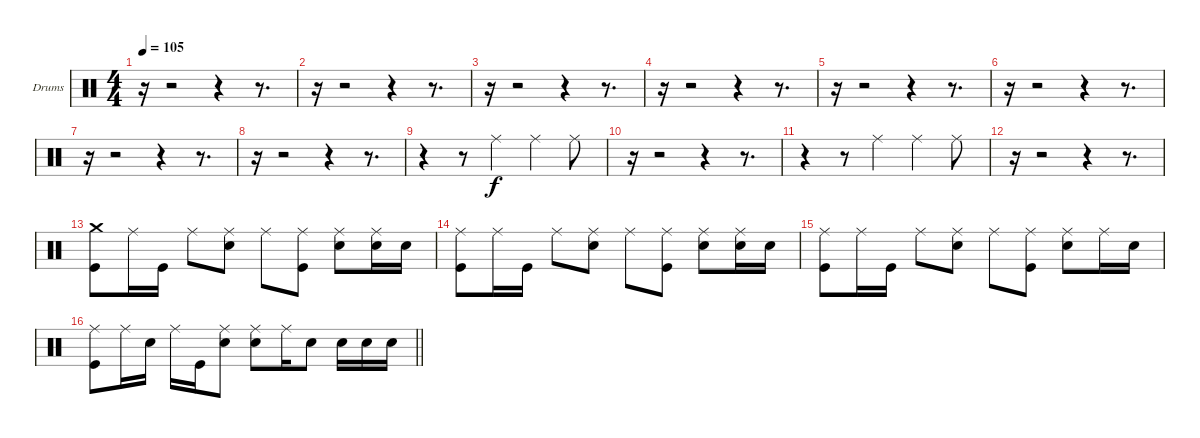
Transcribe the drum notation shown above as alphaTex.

\bracketExtendMode groupsimilarinstruments
\firstSystemTrackNameOrientation horizontal
\otherSystemsTrackNameOrientation horizontal
\track ("Drumkit" "Drums") {instrument percussion}
\staff {score}
\articulation defaults
\ts (4 4)
\tempo 105
\clef neutral
\ks c
r.16{dy f} r.2 r.4 r.8{d} |
r.16 r.2 r.4 r.8{d} |
r.16 r.2 r.4 r.8{d} |
r.16 r.2 r.4 r.8{d} |
r.16 r.2 r.4 r.8{d} |
r.16 r.2 r.4 r.8{d} |
r.16 r.2 r.4 r.8{d} |
r.16 r.2 r.4 r.8{d} |
r.4 r.8 "Ride (middle)".4 "Ride (middle)".4 "Ride (middle)".8 |
r.16 r.2 r.4 r.8{d} |
r.4 r.8 "Ride (middle)".4 "Ride (middle)".4 "Ride (middle)".8 |
r.16 r.2 r.4 r.8{d} |
("Kick (hit)" "Crash medium (hit)").8 "Ride (middle)".16 "Kick (hit)".16 "Ride (middle)".8 ("Snare (hit) 2" "Ride (middle)").8 "Ride (middle)".8 ("Kick (hit)" "Ride (middle)").8 ("Snare (hit) 2" "Ride (middle)").8 ("Snare (hit) 2" "Ride (middle)").16 "Snare (hit) 2".16 |
("Kick (hit)" "Ride (middle)").8 "Ride (middle)".16 "Kick (hit)".16 "Ride (middle)".8 ("Snare (hit) 2" "Ride (middle)").8 "Ride (middle)".8 ("Kick (hit)" "Ride (middle)").8 ("Snare (hit) 2" "Ride (middle)").8 ("Snare (hit) 2" "Ride (middle)").16 "Snare (hit) 2".16 |
("Kick (hit)" "Ride (middle)").8 "Ride (middle)".16 "Kick (hit)".16 "Ride (middle)".8 ("Snare (hit) 2" "Ride (middle)").8 "Ride (middle)".8 ("Kick (hit)" "Ride (middle)").8 ("Snare (hit) 2" "Ride (middle)").8 "Ride (middle)".16 "Snare (hit) 2".16 |
\barLineRight lightlight
("Kick (hit)" "Ride (middle)").8 "Ride (middle)".16 "Snare (hit) 2".16 "Ride (middle)".16 "Kick (hit)".16 ("Snare (hit) 2" "Ride (middle)").8 ("Snare (hit) 2" "Ride (middle)").8 "Ride (middle)".16 "Snare (hit) 2".8 "Snare (hit) 2".16 "Snare (hit) 2".16 "Snare (hit) 2".16
